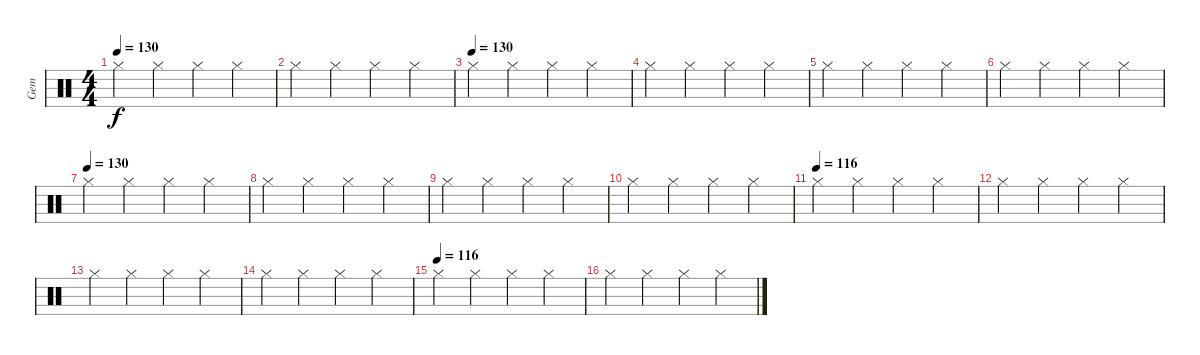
\track ("Gem" "Gem") {instrument percussion}
\staff {score}
\articulation defaults
\ts (4 4)
\tempo 130
\clef neutral
\ks c "Hi-Hat (closed)".4{dy f} "Hi-Hat (closed)".4 "Hi-Hat (closed)".4 "Hi-Hat (closed)".4
|
"Hi-Hat (closed)".4 "Hi-Hat (closed)".4 "Hi-Hat (closed)".4 "Hi-Hat (closed)".4 |
\tempo (130)
"Hi-Hat (closed)".4 "Hi-Hat (closed)".4 "Hi-Hat (closed)".4 "Hi-Hat (closed)".4 |
"Hi-Hat (closed)".4 "Hi-Hat (closed)".4 "Hi-Hat (closed)".4 "Hi-Hat (closed)".4 |
"Hi-Hat (closed)".4 "Hi-Hat (closed)".4 "Hi-Hat (closed)".4 "Hi-Hat (closed)".4 |
"Hi-Hat (closed)".4 "Hi-Hat (closed)".4 "Hi-Hat (closed)".4 "Hi-Hat (closed)".4 |
\tempo (130)
"Hi-Hat (closed)".4 "Hi-Hat (closed)".4 "Hi-Hat (closed)".4 "Hi-Hat (closed)".4 |
"Hi-Hat (closed)".4 "Hi-Hat (closed)".4 "Hi-Hat (closed)".4 "Hi-Hat (closed)".4 |
"Hi-Hat (closed)".4 "Hi-Hat (closed)".4 "Hi-Hat (closed)".4 "Hi-Hat (closed)".4 |
"Hi-Hat (closed)".4 "Hi-Hat (closed)".4 "Hi-Hat (closed)".4 "Hi-Hat (closed)".4 |
\tempo (116)
"Hi-Hat (closed)".4 "Hi-Hat (closed)".4 "Hi-Hat (closed)".4 "Hi-Hat (closed)".4 |
"Hi-Hat (closed)".4 "Hi-Hat (closed)".4 "Hi-Hat (closed)".4 "Hi-Hat (closed)".4 |
"Hi-Hat (closed)".4 "Hi-Hat (closed)".4 "Hi-Hat (closed)".4 "Hi-Hat (closed)".4 |
"Hi-Hat (closed)".4 "Hi-Hat (closed)".4 "Hi-Hat (closed)".4 "Hi-Hat (closed)".4 |
\tempo (116)
"Hi-Hat (closed)".4 "Hi-Hat (closed)".4 "Hi-Hat (closed)".4 "Hi-Hat (closed)".4 |
"Hi-Hat (closed)".4 "Hi-Hat (closed)".4 "Hi-Hat (closed)".4 "Hi-Hat (closed)".4
